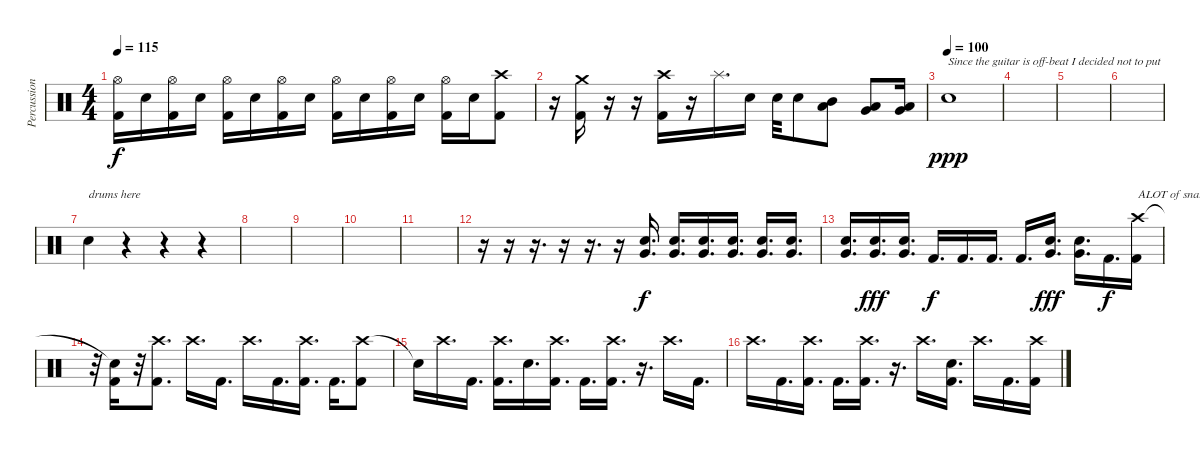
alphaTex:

\track ("Percussion" "Percussion") {instrument percussion}
\staff {score}
\articulation defaults
\ts (4 4)
\tempo 115
\clef neutral
\ks c
("Hi-Hat (open)" "Kick (hit) 2").16{dy f} "Snare (hit) 2".16 ("Hi-Hat (open)" "Kick (hit) 2").16 "Snare (hit) 2".16 ("Hi-Hat (open)" "Kick (hit) 2").16 "Snare (hit) 2".16 ("Hi-Hat (open)" "Kick (hit) 2").16 "Snare (hit) 2".16 ("Hi-Hat (open)" "Kick (hit) 2").16 "Snare (hit) 2".16 ("Hi-Hat (open)" "Kick (hit) 2").16 "Snare (hit) 2".16 ("Hi-Hat (open)" "Kick (hit) 2").16 "Snare (hit) 2".16 ("Crash high (hit)" "Kick (hit) 2").8 |
r.16 ("Crash medium (hit)" "Kick (hit) 2").16 r.16 r.16 ("Crash high (hit)" "Kick (hit) 2").16 r.16 "Splash (hit)".16{d} "Snare (hit) 2".16 "Snare (hit) 2".32 "Snare (hit) 2".8 ("Mid Tom (hit)" "Low Tom (hit)").8 ("Low Tom (hit)" "Very Low Tom (hit)").8 ("Very Low Tom (hit)" "Low Floor Tom (hit)").16 |
\tempo (100)
"Snare (hit)".1{txt "Since the guitar is off-beat I decided not to put " dy ppp} |
|
|
|
"Snare (hit)".4{txt "drums here"} r.4 r.4 r.4 |
|
|
|
|
r.16{volume 4} r.16 r.16{d} r.16 r.16{d} r.16 ("Very Low Tom (hit)" "Snare (hit) 2").16{d dy f volume 13} ("Very Low Tom (hit)" "Snare (hit) 2").16{d} ("Very Low Tom (hit)" "Snare (hit) 2").16{d} ("Very Low Tom (hit)" "Snare (hit) 2").16{d} ("Very Low Tom (hit)" "Snare (hit) 2").16{d} ("Very Low Tom (hit)" "Snare (hit) 2").16{d} |
("Very Low Tom (hit)" "Snare (hit) 2").16{d} ("Very Low Tom (hit)" "Snare (hit) 2").16{d dy fff} ("Very Low Tom (hit)" "Snare (hit) 2").16{d} "Kick (hit) 2".16{d dy f} "Kick (hit) 2".16{d} "Kick (hit) 2".16{d} "Kick (hit) 2".16{d} ("Very Low Tom (hit)" "Snare (hit) 2").16{d dy fff} ("Very Low Tom (hit)" "Snare (hit) 2").16{d} "Kick (hit) 2".16{d dy f} ("Crash high (hit)" "Kick (hit) 2").16{txt "ALOT of snare and kick variations here"} |
r.32 ("Snare (hit)"{t} "Kick (hit) 2").16 r.32 ("Crash high (hit)" "Kick (hit) 2").8{d} "Crash high (hit)".16{d} "Kick (hit) 2".16{d} "Crash high (hit)".16{d} "Kick (hit) 2".16{d} ("Crash high (hit)" "Kick (hit) 2").16{d} "Kick (hit) 2".16{d} ("Crash high (hit)" "Kick (hit) 2").8 |
"Snare (hit)"{t}.16 "Crash high (hit)".16{d} "Kick (hit) 2".16{d} ("Crash high (hit)" "Kick (hit) 2").16{d} "Snare (hit) 2".16{d} ("Crash high (hit)" "Kick (hit) 2").16{d} "Kick (hit) 2".16{d} ("Crash high (hit)" "Kick (hit) 2").16{d} r.16{d} "Crash high (hit)".16{d} "Kick (hit) 2".16{d} |
"Crash high (hit)".16{d} "Kick (hit) 2".16{d} ("Crash high (hit)" "Kick (hit) 2").16{d} "Kick (hit) 2".16{d} ("Crash high (hit)" "Kick (hit) 2").16{d} r.16{d} "Crash high (hit)".16{d} ("Snare (hit) 2" "Kick (hit) 2").16{d} "Crash high (hit)".16{d} "Kick (hit) 2".16{d} ("Crash high (hit)" "Kick (hit) 2").16
